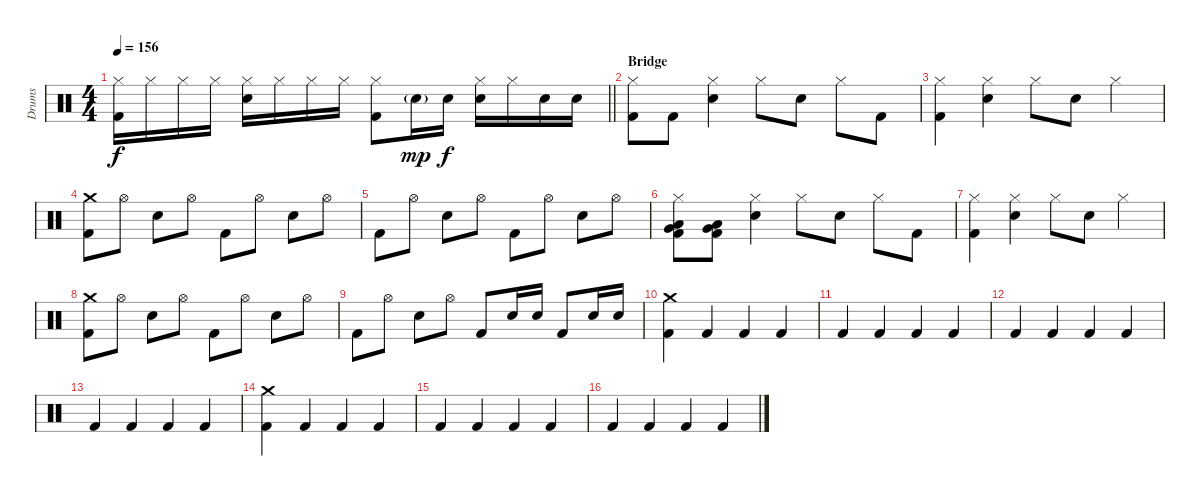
\track ("Drums" "Drums") {instrument percussion}
\staff {score}
\articulation defaults
\ts (4 4)
\tempo 156
\clef neutral
\barLineRight lightlight
\ks c
("Hi-Hat (closed)" "Kick (hit) 2").16{dy f} "Hi-Hat (closed)".16 "Hi-Hat (closed)".16 "Hi-Hat (closed)".16 ("Hi-Hat (closed)" "Electric Snare (hit)").16 "Hi-Hat (closed)".16 "Hi-Hat (closed)".16 "Hi-Hat (closed)".16 ("Hi-Hat (closed)" "Kick (hit) 2").8 "Electric Snare (hit)"{g}.16{dy mp} "Electric Snare (hit)".16{dy f} ("Hi-Hat (closed)" "Electric Snare (hit)").16 "Hi-Hat (closed)".16 "Electric Snare (hit)".16 "Electric Snare (hit)".16 |
\section ("" "Bridge")
("Hi-Hat (closed)" "Kick (hit) 2").8 "Kick (hit) 2".8 ("Hi-Hat (closed)" "Electric Snare (hit)").4 "Hi-Hat (closed)".8 "Electric Snare (hit)".8 "Hi-Hat (closed)".8 "Kick (hit) 2".8 |
("Hi-Hat (closed)" "Kick (hit) 2").4 ("Hi-Hat (closed)" "Electric Snare (hit)").4 "Hi-Hat (closed)".8 "Electric Snare (hit)".8 "Hi-Hat (closed)".4 |
("Crash medium (hit)" "Kick (hit) 2").8 "Hi-Hat (open)".8 "Electric Snare (hit)".8 "Hi-Hat (open)".8 "Kick (hit) 2".8 "Hi-Hat (open)".8 "Electric Snare (hit)".8 "Hi-Hat (open)".8 |
"Kick (hit) 2".8 "Hi-Hat (open)".8 "Electric Snare (hit)".8 "Hi-Hat (open)".8 "Kick (hit) 2".8 "Hi-Hat (open)".8 "Electric Snare (hit)".8 "Hi-Hat (open)".8 |
("Hi-Hat (closed)" "Low Floor Tom (hit)" "Very Low Tom (hit)" "Kick (hit) 2").8 ("Low Floor Tom (hit)" "Very Low Tom (hit)" "Kick (hit) 2").8 ("Hi-Hat (closed)" "Electric Snare (hit)").4 "Hi-Hat (closed)".8 "Electric Snare (hit)".8 "Hi-Hat (closed)".8 "Kick (hit) 2".8 |
("Hi-Hat (closed)" "Kick (hit) 2").4 ("Hi-Hat (closed)" "Electric Snare (hit)").4 "Hi-Hat (closed)".8 "Electric Snare (hit)".8 "Hi-Hat (closed)".4 |
("Crash medium (hit)" "Kick (hit) 2").8 "Hi-Hat (open)".8 "Electric Snare (hit)".8 "Hi-Hat (open)".8 "Kick (hit) 2".8 "Hi-Hat (open)".8 "Electric Snare (hit)".8 "Hi-Hat (open)".8 |
"Kick (hit) 2".8 "Hi-Hat (open)".8 "Electric Snare (hit)".8 "Hi-Hat (open)".8 "Kick (hit) 2".8 "Electric Snare (hit)".16 "Electric Snare (hit)".16 "Kick (hit) 2".8 "Electric Snare (hit)".16 "Electric Snare (hit)".16 |
("Crash medium (hit)" "Kick (hit) 2").4 "Kick (hit) 2".4 "Kick (hit) 2".4 "Kick (hit) 2".4 |
"Kick (hit) 2".4 "Kick (hit) 2".4 "Kick (hit) 2".4 "Kick (hit) 2".4 |
"Kick (hit) 2".4 "Kick (hit) 2".4 "Kick (hit) 2".4 "Kick (hit) 2".4 |
"Kick (hit) 2".4 "Kick (hit) 2".4 "Kick (hit) 2".4 "Kick (hit) 2".4 |
("Crash medium (hit)" "Kick (hit) 2").4 "Kick (hit) 2".4 "Kick (hit) 2".4 "Kick (hit) 2".4 |
"Kick (hit) 2".4 "Kick (hit) 2".4 "Kick (hit) 2".4 "Kick (hit) 2".4 |
"Kick (hit) 2".4 "Kick (hit) 2".4 "Kick (hit) 2".4 "Kick (hit) 2".4
